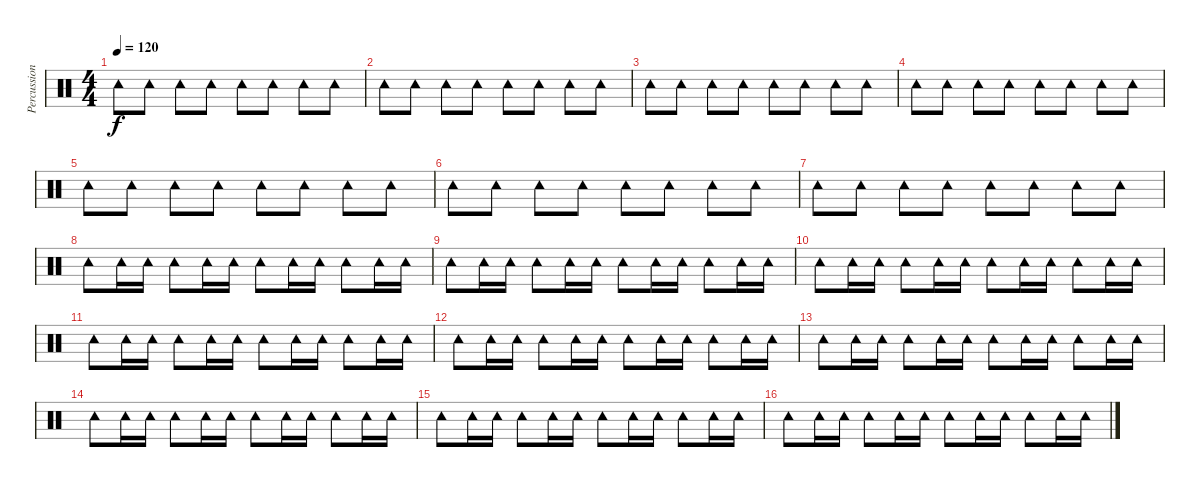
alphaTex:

\track ("Percussion" "Percussion") {instrument percussion}
\staff {score}
\articulation defaults
\ts (4 4)
\tempo 120
\clef neutral
\ks c "Tambourine (hit)".8{dy f} "Tambourine (hit)".8 "Tambourine (hit)".8 "Tambourine (hit)".8 "Tambourine (hit)".8 "Tambourine (hit)".8 "Tambourine (hit)".8 "Tambourine (hit)".8
|
"Tambourine (hit)".8 "Tambourine (hit)".8 "Tambourine (hit)".8 "Tambourine (hit)".8 "Tambourine (hit)".8 "Tambourine (hit)".8 "Tambourine (hit)".8 "Tambourine (hit)".8 |
"Tambourine (hit)".8 "Tambourine (hit)".8 "Tambourine (hit)".8 "Tambourine (hit)".8 "Tambourine (hit)".8 "Tambourine (hit)".8 "Tambourine (hit)".8 "Tambourine (hit)".8 |
"Tambourine (hit)".8 "Tambourine (hit)".8 "Tambourine (hit)".8 "Tambourine (hit)".8 "Tambourine (hit)".8 "Tambourine (hit)".8 "Tambourine (hit)".8 "Tambourine (hit)".8 |
"Tambourine (hit)".8 "Tambourine (hit)".8 "Tambourine (hit)".8 "Tambourine (hit)".8 "Tambourine (hit)".8 "Tambourine (hit)".8 "Tambourine (hit)".8 "Tambourine (hit)".8 |
"Tambourine (hit)".8 "Tambourine (hit)".8 "Tambourine (hit)".8 "Tambourine (hit)".8 "Tambourine (hit)".8 "Tambourine (hit)".8 "Tambourine (hit)".8 "Tambourine (hit)".8 |
"Tambourine (hit)".8 "Tambourine (hit)".8 "Tambourine (hit)".8 "Tambourine (hit)".8 "Tambourine (hit)".8 "Tambourine (hit)".8 "Tambourine (hit)".8 "Tambourine (hit)".8 |
"Tambourine (hit)".8 "Tambourine (hit)".16 "Tambourine (hit)".16 "Tambourine (hit)".8 "Tambourine (hit)".16 "Tambourine (hit)".16 "Tambourine (hit)".8 "Tambourine (hit)".16 "Tambourine (hit)".16 "Tambourine (hit)".8 "Tambourine (hit)".16 "Tambourine (hit)".16 |
"Tambourine (hit)".8 "Tambourine (hit)".16 "Tambourine (hit)".16 "Tambourine (hit)".8 "Tambourine (hit)".16 "Tambourine (hit)".16 "Tambourine (hit)".8 "Tambourine (hit)".16 "Tambourine (hit)".16 "Tambourine (hit)".8 "Tambourine (hit)".16 "Tambourine (hit)".16 |
"Tambourine (hit)".8 "Tambourine (hit)".16 "Tambourine (hit)".16 "Tambourine (hit)".8 "Tambourine (hit)".16 "Tambourine (hit)".16 "Tambourine (hit)".8 "Tambourine (hit)".16 "Tambourine (hit)".16 "Tambourine (hit)".8 "Tambourine (hit)".16 "Tambourine (hit)".16 |
"Tambourine (hit)".8 "Tambourine (hit)".16 "Tambourine (hit)".16 "Tambourine (hit)".8 "Tambourine (hit)".16 "Tambourine (hit)".16 "Tambourine (hit)".8 "Tambourine (hit)".16 "Tambourine (hit)".16 "Tambourine (hit)".8 "Tambourine (hit)".16 "Tambourine (hit)".16 |
"Tambourine (hit)".8 "Tambourine (hit)".16 "Tambourine (hit)".16 "Tambourine (hit)".8 "Tambourine (hit)".16 "Tambourine (hit)".16 "Tambourine (hit)".8 "Tambourine (hit)".16 "Tambourine (hit)".16 "Tambourine (hit)".8 "Tambourine (hit)".16 "Tambourine (hit)".16 |
"Tambourine (hit)".8 "Tambourine (hit)".16 "Tambourine (hit)".16 "Tambourine (hit)".8 "Tambourine (hit)".16 "Tambourine (hit)".16 "Tambourine (hit)".8 "Tambourine (hit)".16 "Tambourine (hit)".16 "Tambourine (hit)".8 "Tambourine (hit)".16 "Tambourine (hit)".16 |
"Tambourine (hit)".8 "Tambourine (hit)".16 "Tambourine (hit)".16 "Tambourine (hit)".8 "Tambourine (hit)".16 "Tambourine (hit)".16 "Tambourine (hit)".8 "Tambourine (hit)".16 "Tambourine (hit)".16 "Tambourine (hit)".8 "Tambourine (hit)".16 "Tambourine (hit)".16 |
"Tambourine (hit)".8 "Tambourine (hit)".16 "Tambourine (hit)".16 "Tambourine (hit)".8 "Tambourine (hit)".16 "Tambourine (hit)".16 "Tambourine (hit)".8 "Tambourine (hit)".16 "Tambourine (hit)".16 "Tambourine (hit)".8 "Tambourine (hit)".16 "Tambourine (hit)".16 |
"Tambourine (hit)".8 "Tambourine (hit)".16 "Tambourine (hit)".16 "Tambourine (hit)".8 "Tambourine (hit)".16 "Tambourine (hit)".16 "Tambourine (hit)".8 "Tambourine (hit)".16 "Tambourine (hit)".16 "Tambourine (hit)".8 "Tambourine (hit)".16 "Tambourine (hit)".16
